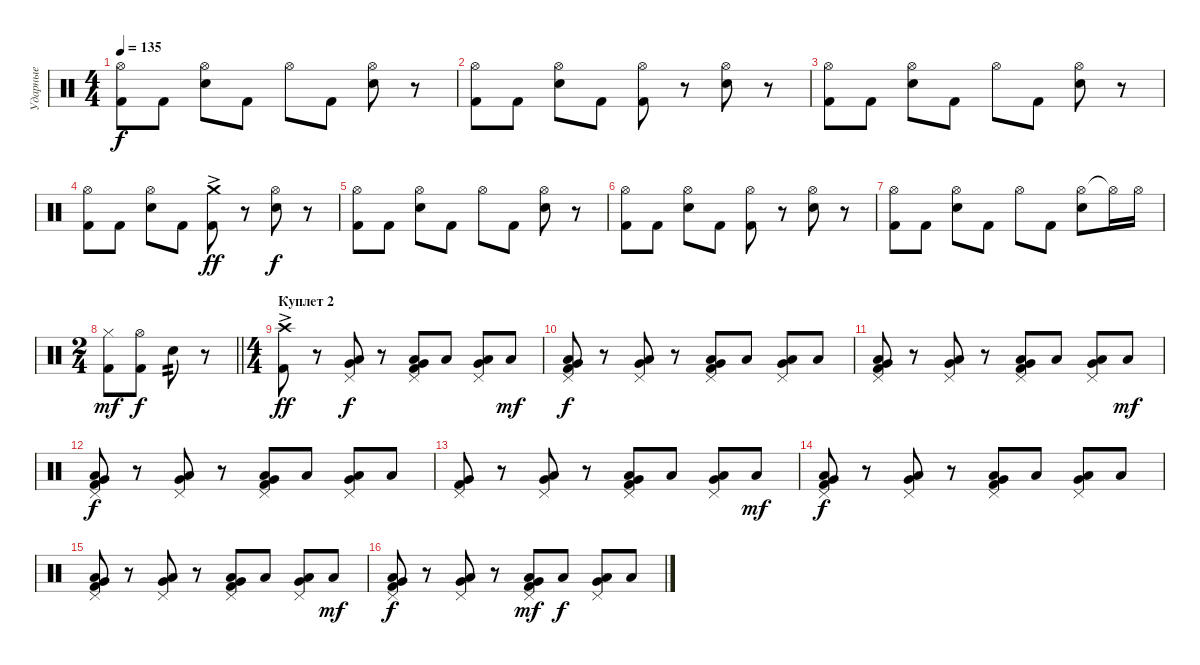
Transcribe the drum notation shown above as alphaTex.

\track ("Ударные" "Ударные") {instrument percussion}
\staff
\articulation defaults
\ts (4 4)
\tempo 135
\clef neutral
\ks c
("Hi-Hat (open)" "Kick (hit) 2").8{dy f} "Kick (hit) 2".8 ("Hi-Hat (open)" "Electric Snare (hit)").8 "Kick (hit) 2".8 "Hi-Hat (open)".8 "Kick (hit) 2".8 ("Hi-Hat (open)" "Electric Snare (hit)").8 r.8 |
("Hi-Hat (open)" "Kick (hit) 2").8 "Kick (hit) 2".8 ("Hi-Hat (open)" "Electric Snare (hit)").8 "Kick (hit) 2".8 ("Hi-Hat (open)" "Kick (hit) 2").8 r.8 ("Hi-Hat (open)" "Electric Snare (hit)").8 r.8 |
("Hi-Hat (open)" "Kick (hit) 2").8 "Kick (hit) 2".8 ("Hi-Hat (open)" "Electric Snare (hit)").8 "Kick (hit) 2".8 "Hi-Hat (open)".8 "Kick (hit) 2".8 ("Hi-Hat (open)" "Electric Snare (hit)").8 r.8 |
("Hi-Hat (open)" "Kick (hit) 2").8 "Kick (hit) 2".8 ("Hi-Hat (open)" "Electric Snare (hit)").8 "Kick (hit) 2".8 ("Crash medium (hit)"{ac} "Kick (hit) 2").8{dy ff} r.8 ("Hi-Hat (open)" "Electric Snare (hit)").8{dy f} r.8 |
("Hi-Hat (open)" "Kick (hit) 2").8 "Kick (hit) 2".8 ("Hi-Hat (open)" "Electric Snare (hit)").8 "Kick (hit) 2".8 "Hi-Hat (open)".8 "Kick (hit) 2".8 ("Hi-Hat (open)" "Electric Snare (hit)").8 r.8 |
("Hi-Hat (open)" "Kick (hit) 2").8 "Kick (hit) 2".8 ("Hi-Hat (open)" "Electric Snare (hit)").8 "Kick (hit) 2".8 ("Hi-Hat (open)" "Kick (hit) 2").8 r.8 ("Hi-Hat (open)" "Electric Snare (hit)").8 r.8 |
("Hi-Hat (open)" "Kick (hit) 2").8 "Kick (hit) 2".8 ("Hi-Hat (open)" "Electric Snare (hit)").8 "Kick (hit) 2".8 "Hi-Hat (open)".8 "Kick (hit) 2".8 ("Hi-Hat (open)" "Electric Snare (hit)").8 "Hi-Hat (open)"{t}.16 "Hi-Hat (open)".16 |
\ts (2 4)
\barLineRight lightlight
("Hi-Hat (closed)" "Kick (hit) 2").8{dy mf} ("Hi-Hat (open)" "Kick (hit) 2").8{dy f} "Electric Snare (hit)".8{tp 2} r.8 |
\ts (4 4)
\section ("" "Куплет 2")
("Crash high (hit)"{ac} "Kick (hit) 2").8{dy ff} r.8 ("Pedal Hi-Hat (hit)" "Very Low Tom (hit)" "Low Floor Tom (hit)").8{dy f} r.8 ("Pedal Hi-Hat (hit)" "Very Low Tom (hit)" "Low Floor Tom (hit)" "Kick (hit) 2").8 "Low Floor Tom (hit)".8 ("Pedal Hi-Hat (hit)" "Very Low Tom (hit)" "Low Floor Tom (hit)").8 "Low Floor Tom (hit)".8{dy mf} |
("Pedal Hi-Hat (hit)" "Very Low Tom (hit)" "Low Floor Tom (hit)" "Kick (hit) 2").8{dy f} r.8 ("Pedal Hi-Hat (hit)" "Very Low Tom (hit)" "Low Floor Tom (hit)").8 r.8 ("Pedal Hi-Hat (hit)" "Very Low Tom (hit)" "Low Floor Tom (hit)" "Kick (hit) 2").8 "Low Floor Tom (hit)".8 ("Pedal Hi-Hat (hit)" "Very Low Tom (hit)" "Low Floor Tom (hit)").8 "Low Floor Tom (hit)".8 |
("Pedal Hi-Hat (hit)" "Very Low Tom (hit)" "Low Floor Tom (hit)" "Kick (hit) 2").8 r.8 ("Pedal Hi-Hat (hit)" "Very Low Tom (hit)" "Low Floor Tom (hit)").8 r.8 ("Pedal Hi-Hat (hit)" "Very Low Tom (hit)" "Low Floor Tom (hit)" "Kick (hit) 2").8 "Low Floor Tom (hit)".8 ("Pedal Hi-Hat (hit)" "Very Low Tom (hit)" "Low Floor Tom (hit)").8 "Low Floor Tom (hit)".8{dy mf} |
("Pedal Hi-Hat (hit)" "Very Low Tom (hit)" "Low Floor Tom (hit)" "Kick (hit) 2").8{dy f} r.8 ("Pedal Hi-Hat (hit)" "Very Low Tom (hit)" "Low Floor Tom (hit)").8 r.8 ("Pedal Hi-Hat (hit)" "Very Low Tom (hit)" "Low Floor Tom (hit)" "Kick (hit) 2").8 "Low Floor Tom (hit)".8 ("Pedal Hi-Hat (hit)" "Very Low Tom (hit)" "Low Floor Tom (hit)").8 "Low Floor Tom (hit)".8 |
("Pedal Hi-Hat (hit)" "Very Low Tom (hit)" "Kick (hit) 2").8 r.8 ("Pedal Hi-Hat (hit)" "Very Low Tom (hit)" "Low Floor Tom (hit)").8 r.8 ("Pedal Hi-Hat (hit)" "Very Low Tom (hit)" "Low Floor Tom (hit)" "Kick (hit) 2").8 "Low Floor Tom (hit)".8 ("Pedal Hi-Hat (hit)" "Very Low Tom (hit)" "Low Floor Tom (hit)").8 "Low Floor Tom (hit)".8{dy mf} |
("Pedal Hi-Hat (hit)" "Very Low Tom (hit)" "Low Floor Tom (hit)" "Kick (hit) 2").8{dy f} r.8 ("Pedal Hi-Hat (hit)" "Very Low Tom (hit)" "Low Floor Tom (hit)").8 r.8 ("Pedal Hi-Hat (hit)" "Very Low Tom (hit)" "Low Floor Tom (hit)" "Kick (hit) 2").8 "Low Floor Tom (hit)".8 ("Pedal Hi-Hat (hit)" "Very Low Tom (hit)" "Low Floor Tom (hit)").8 "Low Floor Tom (hit)".8 |
("Pedal Hi-Hat (hit)" "Very Low Tom (hit)" "Low Floor Tom (hit)" "Kick (hit) 2").8 r.8 ("Pedal Hi-Hat (hit)" "Very Low Tom (hit)" "Low Floor Tom (hit)").8 r.8 ("Pedal Hi-Hat (hit)" "Very Low Tom (hit)" "Low Floor Tom (hit)" "Kick (hit) 2").8 "Low Floor Tom (hit)".8 ("Pedal Hi-Hat (hit)" "Very Low Tom (hit)" "Low Floor Tom (hit)").8 "Low Floor Tom (hit)".8{dy mf} |
("Pedal Hi-Hat (hit)" "Very Low Tom (hit)" "Low Floor Tom (hit)" "Kick (hit) 2").8{dy f} r.8 ("Pedal Hi-Hat (hit)" "Very Low Tom (hit)" "Low Floor Tom (hit)").8 r.8 ("Pedal Hi-Hat (hit)" "Very Low Tom (hit)" "Low Floor Tom (hit)" "Kick (hit) 2").8{dy mf} "Low Floor Tom (hit)".8{dy f} ("Pedal Hi-Hat (hit)" "Very Low Tom (hit)" "Low Floor Tom (hit)").8 "Low Floor Tom (hit)".8
